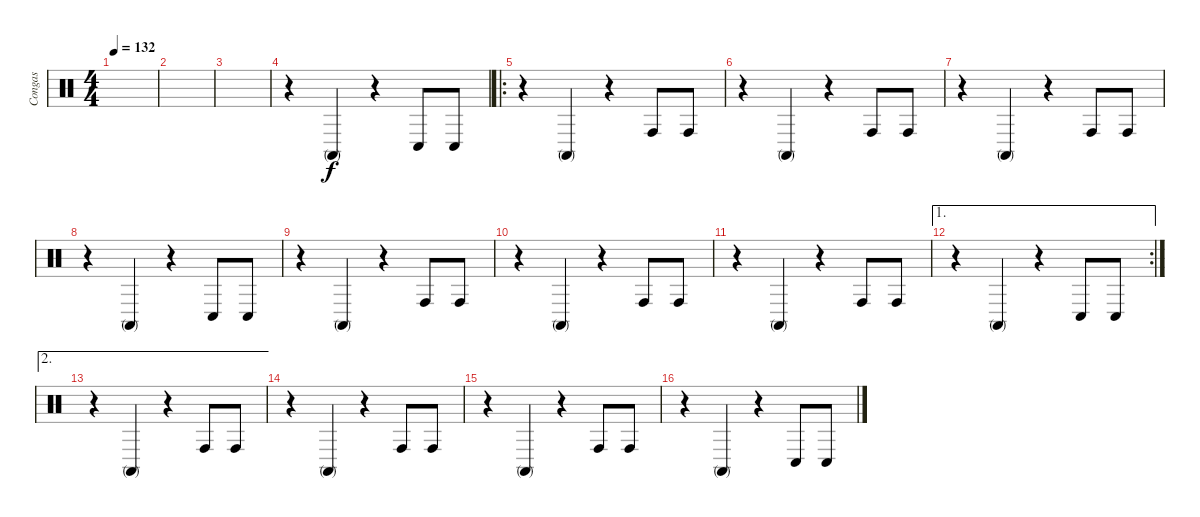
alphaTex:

\track ("Congas" "Congas") {instrument percussion}
\staff {score}
\articulation defaults
\ts (4 4)
\tempo 132
\clef neutral
\ks c
|
|
|
r.4 "Conga high (mute)".4 r.4 "Conga low (hit)".8 "Conga low (hit)".8 |
\ro
r.4 "Conga high (mute)".4 r.4 "Conga high (hit)".8 "Conga high (hit)".8 |
r.4 "Conga high (mute)".4 r.4 "Conga high (hit)".8 "Conga high (hit)".8 |
r.4 "Conga high (mute)".4 r.4 "Conga high (hit)".8 "Conga high (hit)".8 |
r.4 "Conga high (mute)".4 r.4 "Conga low (hit)".8 "Conga low (hit)".8 |
r.4 "Conga high (mute)".4 r.4 "Conga high (hit)".8 "Conga high (hit)".8 |
r.4 "Conga high (mute)".4 r.4 "Conga high (hit)".8 "Conga high (hit)".8 |
r.4 "Conga high (mute)".4 r.4 "Conga high (hit)".8 "Conga high (hit)".8 |
\ae 1
\rc 2
r.4 "Conga high (mute)".4 r.4 "Conga low (hit)".8 "Conga low (hit)".8 |
\ae 2
r.4 "Conga high (mute)".4 r.4 "Conga high (hit)".8 "Conga high (hit)".8 |
r.4 "Conga high (mute)".4 r.4 "Conga high (hit)".8 "Conga high (hit)".8 |
r.4 "Conga high (mute)".4 r.4 "Conga high (hit)".8 "Conga high (hit)".8 |
r.4 "Conga high (mute)".4 r.4 "Conga low (hit)".8 "Conga low (hit)".8
